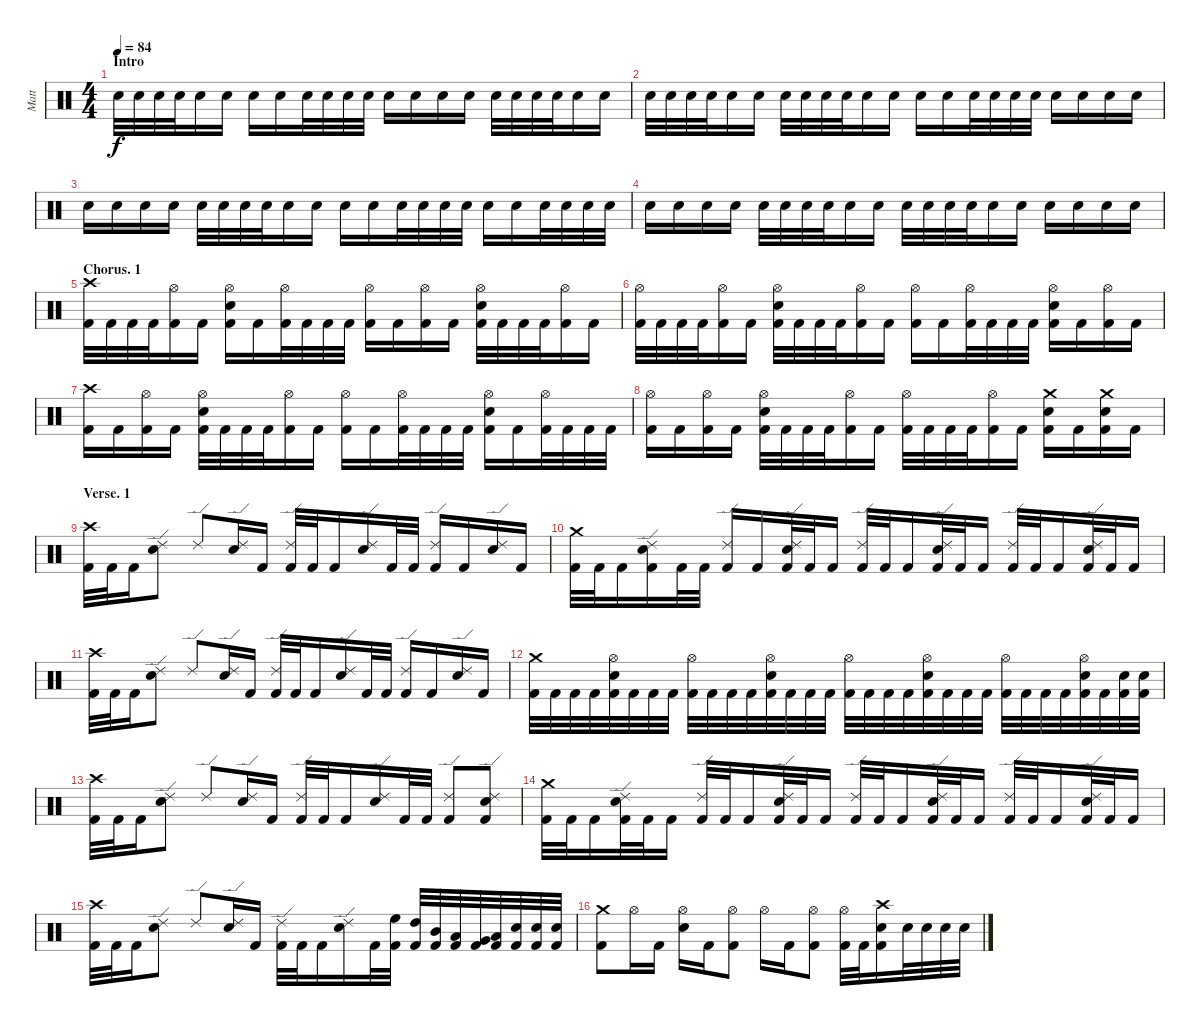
\track ("Matt" "Matt") {instrument percussion}
\staff {score}
\articulation defaults
\ts (4 4)
\section ("" "Intro")
\tempo 84
\clef neutral
\ks c "Electric Snare (hit)".32{dy f} "Electric Snare (hit)".32 "Electric Snare (hit)".32 "Electric Snare (hit)".32 "Electric Snare (hit)".16 "Electric Snare (hit)".16 "Electric Snare (hit)".16 "Electric Snare (hit)".16 "Electric Snare (hit)".32 "Electric Snare (hit)".32 "Electric Snare (hit)".32 "Electric Snare (hit)".32 "Electric Snare (hit)".16 "Electric Snare (hit)".16 "Electric Snare (hit)".16 "Electric Snare (hit)".16 "Electric Snare (hit)".32 "Electric Snare (hit)".32 "Electric Snare (hit)".32 "Electric Snare (hit)".32 "Electric Snare (hit)".16 "Electric Snare (hit)".16
|
"Electric Snare (hit)".32 "Electric Snare (hit)".32 "Electric Snare (hit)".32 "Electric Snare (hit)".32 "Electric Snare (hit)".16 "Electric Snare (hit)".16 "Electric Snare (hit)".32 "Electric Snare (hit)".32 "Electric Snare (hit)".32 "Electric Snare (hit)".32 "Electric Snare (hit)".16 "Electric Snare (hit)".16 "Electric Snare (hit)".16 "Electric Snare (hit)".16 "Electric Snare (hit)".32 "Electric Snare (hit)".32 "Electric Snare (hit)".32 "Electric Snare (hit)".32 "Electric Snare (hit)".16 "Electric Snare (hit)".16 "Electric Snare (hit)".16 "Electric Snare (hit)".16 |
"Electric Snare (hit)".16 "Electric Snare (hit)".16 "Electric Snare (hit)".16 "Electric Snare (hit)".16 "Electric Snare (hit)".32 "Electric Snare (hit)".32 "Electric Snare (hit)".32 "Electric Snare (hit)".32 "Electric Snare (hit)".16 "Electric Snare (hit)".16 "Electric Snare (hit)".16 "Electric Snare (hit)".16 "Electric Snare (hit)".32 "Electric Snare (hit)".32 "Electric Snare (hit)".32 "Electric Snare (hit)".32 "Electric Snare (hit)".16 "Electric Snare (hit)".16 "Electric Snare (hit)".32 "Electric Snare (hit)".32 "Electric Snare (hit)".32 "Electric Snare (hit)".32 |
"Electric Snare (hit)".16 "Electric Snare (hit)".16 "Electric Snare (hit)".16 "Electric Snare (hit)".16 "Electric Snare (hit)".32 "Electric Snare (hit)".32 "Electric Snare (hit)".32 "Electric Snare (hit)".32 "Electric Snare (hit)".16 "Electric Snare (hit)".16 "Electric Snare (hit)".32 "Electric Snare (hit)".32 "Electric Snare (hit)".32 "Electric Snare (hit)".32 "Electric Snare (hit)".16 "Electric Snare (hit)".16 "Electric Snare (hit)".16 "Electric Snare (hit)".16 "Electric Snare (hit)".16 "Electric Snare (hit)".16 |
\section ("" "Chorus. 1")
("Crash high (hit)" "Kick (hit) 2").32 "Kick (hit) 2".32 "Kick (hit) 2".32 "Kick (hit) 2".32 ("Hi-Hat (open)" "Kick (hit) 2").16 "Kick (hit) 2".16 ("Hi-Hat (open)" "Electric Snare (hit)" "Kick (hit) 2").16 "Kick (hit) 2".16 ("Hi-Hat (open)" "Kick (hit) 2").32 "Kick (hit) 2".32 "Kick (hit) 2".32 "Kick (hit) 2".32 ("Hi-Hat (open)" "Kick (hit) 2").16 "Kick (hit) 2".16 ("Hi-Hat (open)" "Kick (hit) 2").16 "Kick (hit) 2".16 ("Hi-Hat (open)" "Electric Snare (hit)" "Kick (hit) 2").32 "Kick (hit) 2".32 "Kick (hit) 2".32 "Kick (hit) 2".32 ("Hi-Hat (open)" "Kick (hit) 2").16 "Kick (hit) 2".16 |
("Hi-Hat (open)" "Kick (hit) 2").32 "Kick (hit) 2".32 "Kick (hit) 2".32 "Kick (hit) 2".32 ("Hi-Hat (open)" "Kick (hit) 2").16 "Kick (hit) 2".16 ("Hi-Hat (open)" "Electric Snare (hit)" "Kick (hit) 2").32 "Kick (hit) 2".32 "Kick (hit) 2".32 "Kick (hit) 2".32 ("Hi-Hat (open)" "Kick (hit) 2").16 "Kick (hit) 2".16 ("Hi-Hat (open)" "Kick (hit) 2").16 "Kick (hit) 2".16 ("Hi-Hat (open)" "Kick (hit) 2").32 "Kick (hit) 2".32 "Kick (hit) 2".32 "Kick (hit) 2".32 ("Hi-Hat (open)" "Electric Snare (hit)" "Kick (hit) 2").16 "Kick (hit) 2".16 ("Hi-Hat (open)" "Kick (hit) 2").16 "Kick (hit) 2".16 |
("Crash high (hit)" "Kick (hit) 2").16 "Kick (hit) 2".16 ("Hi-Hat (open)" "Kick (hit) 2").16 "Kick (hit) 2".16 ("Hi-Hat (open)" "Electric Snare (hit)" "Kick (hit) 2").32 "Kick (hit) 2".32 "Kick (hit) 2".32 "Kick (hit) 2".32 ("Hi-Hat (open)" "Kick (hit) 2").16 "Kick (hit) 2".16 ("Hi-Hat (open)" "Kick (hit) 2").16 "Kick (hit) 2".16 ("Hi-Hat (open)" "Kick (hit) 2").32 "Kick (hit) 2".32 "Kick (hit) 2".32 "Kick (hit) 2".32 ("Hi-Hat (open)" "Electric Snare (hit)" "Kick (hit) 2").16 "Kick (hit) 2".16 ("Hi-Hat (open)" "Kick (hit) 2").32 "Kick (hit) 2".32 "Kick (hit) 2".32 "Kick (hit) 2".32 |
("Hi-Hat (open)" "Kick (hit) 2").16 "Kick (hit) 2".16 ("Hi-Hat (open)" "Kick (hit) 2").16 "Kick (hit) 2".16 ("Hi-Hat (open)" "Electric Snare (hit)" "Kick (hit) 2").32 "Kick (hit) 2".32 "Kick (hit) 2".32 "Kick (hit) 2".32 ("Hi-Hat (open)" "Kick (hit) 2").16 "Kick (hit) 2".16 ("Hi-Hat (open)" "Kick (hit) 2").32 "Kick (hit) 2".32 "Kick (hit) 2".32 "Kick (hit) 2".32 ("Hi-Hat (open)" "Kick (hit) 2").16 "Kick (hit) 2".16 ("Crash medium (hit)" "Electric Snare (hit)" "Kick (hit) 2").16 "Kick (hit) 2".16 ("Crash medium (hit)" "Electric Snare (hit)" "Kick (hit) 2").16 "Kick (hit) 2".16 |
\section ("" "Verse. 1")
("Crash high (hit)" "Kick (hit) 2").32 "Kick (hit) 2".32 "Kick (hit) 2".16 ("Ride (edge) 2" "Electric Snare (hit)").8 "Ride (edge) 2".8 ("Ride (edge) 2" "Electric Snare (hit)").16 "Kick (hit) 2".16 ("Ride (edge) 2" "Kick (hit) 2").32 "Kick (hit) 2".32 "Kick (hit) 2".16 ("Ride (edge) 2" "Electric Snare (hit)").16 "Kick (hit) 2".32 "Kick (hit) 2".32 ("Ride (edge) 2" "Kick (hit) 2").16 "Kick (hit) 2".16 ("Ride (edge) 2" "Electric Snare (hit)").16 "Kick (hit) 2".16 |
("Crash medium (hit)" "Kick (hit) 2").32 "Kick (hit) 2".32 "Kick (hit) 2".16 ("Ride (edge) 2" "Electric Snare (hit)" "Kick (hit) 2").16 "Kick (hit) 2".32 "Kick (hit) 2".32 ("Ride (edge) 2" "Kick (hit) 2").16 "Kick (hit) 2".16 ("Ride (edge) 2" "Electric Snare (hit)" "Kick (hit) 2").32 "Kick (hit) 2".32 "Kick (hit) 2".16 ("Ride (edge) 2" "Kick (hit) 2").32 "Kick (hit) 2".32 "Kick (hit) 2".16 ("Ride (edge) 2" "Electric Snare (hit)" "Kick (hit) 2").32 "Kick (hit) 2".32 "Kick (hit) 2".16 ("Ride (edge) 2" "Kick (hit) 2").32 "Kick (hit) 2".32 "Kick (hit) 2".16 ("Ride (edge) 2" "Electric Snare (hit)" "Kick (hit) 2").32 "Kick (hit) 2".32 "Kick (hit) 2".16 |
("Crash high (hit)" "Kick (hit) 2").32 "Kick (hit) 2".32 "Kick (hit) 2".16 ("Ride (edge) 2" "Electric Snare (hit)").8 "Ride (edge) 2".8 ("Ride (edge) 2" "Electric Snare (hit)").16 "Kick (hit) 2".16 ("Ride (edge) 2" "Kick (hit) 2").32 "Kick (hit) 2".32 "Kick (hit) 2".16 ("Ride (edge) 2" "Electric Snare (hit)").16 "Kick (hit) 2".32 "Kick (hit) 2".32 ("Ride (edge) 2" "Kick (hit) 2").16 "Kick (hit) 2".16 ("Ride (edge) 2" "Electric Snare (hit)").16 "Kick (hit) 2".16 |
("Crash medium (hit)" "Kick (hit) 2").32 "Kick (hit) 2".32 "Kick (hit) 2".32 "Kick (hit) 2".32 ("Hi-Hat (open)" "Electric Snare (hit)" "Kick (hit) 2").32 "Kick (hit) 2".32 "Kick (hit) 2".32 "Kick (hit) 2".32 ("Hi-Hat (open)" "Kick (hit) 2").32 "Kick (hit) 2".32 "Kick (hit) 2".32 "Kick (hit) 2".32 ("Hi-Hat (open)" "Electric Snare (hit)" "Kick (hit) 2").32 "Kick (hit) 2".32 "Kick (hit) 2".32 "Kick (hit) 2".32 ("Hi-Hat (open)" "Kick (hit) 2").32 "Kick (hit) 2".32 "Kick (hit) 2".32 "Kick (hit) 2".32 ("Hi-Hat (open)" "Electric Snare (hit)" "Kick (hit) 2").32 "Kick (hit) 2".32 "Kick (hit) 2".32 "Kick (hit) 2".32 ("Hi-Hat (open)" "Kick (hit) 2").32 "Kick (hit) 2".32 "Kick (hit) 2".32 "Kick (hit) 2".32 ("Hi-Hat (open)" "Electric Snare (hit)" "Kick (hit) 2").32 "Kick (hit) 2".32 ("Electric Snare (hit)" "Kick (hit) 2").32 ("Electric Snare (hit)" "Kick (hit) 2").32 |
("Crash high (hit)" "Kick (hit) 2").32 "Kick (hit) 2".32 "Kick (hit) 2".16 ("Ride (edge) 2" "Electric Snare (hit)").8 "Ride (edge) 2".8 ("Ride (edge) 2" "Electric Snare (hit)").16 "Kick (hit) 2".16 ("Ride (edge) 2" "Kick (hit) 2").32 "Kick (hit) 2".32 "Kick (hit) 2".16 ("Ride (edge) 2" "Electric Snare (hit)").16 "Kick (hit) 2".32 "Kick (hit) 2".32 ("Ride (edge) 2" "Kick (hit) 2").8 ("Ride (edge) 2" "Electric Snare (hit)" "Kick (hit) 2").8 |
("Crash medium (hit)" "Kick (hit) 2").32 "Kick (hit) 2".32 "Kick (hit) 2".16 ("Ride (edge) 2" "Electric Snare (hit)" "Kick (hit) 2").32 "Kick (hit) 2".32 "Kick (hit) 2".16 ("Ride (edge) 2" "Kick (hit) 2").32 "Kick (hit) 2".32 "Kick (hit) 2".16 ("Ride (edge) 2" "Electric Snare (hit)" "Kick (hit) 2").32 "Kick (hit) 2".32 "Kick (hit) 2".16 ("Ride (edge) 2" "Kick (hit) 2").32 "Kick (hit) 2".32 "Kick (hit) 2".16 ("Ride (edge) 2" "Electric Snare (hit)" "Kick (hit) 2").32 "Kick (hit) 2".32 "Kick (hit) 2".16 ("Ride (edge) 2" "Kick (hit) 2").32 "Kick (hit) 2".32 "Kick (hit) 2".16 ("Ride (edge) 2" "Electric Snare (hit)" "Kick (hit) 2").32 "Kick (hit) 2".32 "Kick (hit) 2".16 |
("Crash high (hit)" "Kick (hit) 2").32 "Kick (hit) 2".32 "Kick (hit) 2".16 ("Ride (edge) 2" "Electric Snare (hit)").8 "Ride (edge) 2".8 ("Ride (edge) 2" "Electric Snare (hit)").16 "Kick (hit) 2".16 ("Ride (edge) 2" "Kick (hit) 2").32 "Kick (hit) 2".32 "Kick (hit) 2".16 ("Ride (edge) 2" "Electric Snare (hit)").16 "Kick (hit) 2".32 ("High Floor Tom (hit)" "Kick (hit) 2").32 ("High Tom (hit)" "Kick (hit) 2").32 ("Mid Tom (hit)" "Kick (hit) 2").32 ("Low Tom (hit)" "Kick (hit) 2").32 ("Very Low Tom (hit)" "Kick (hit) 2").32 ("Low Tom (hit)" "Kick (hit) 2").32 ("Electric Snare (hit)" "Kick (hit) 2").32 ("Electric Snare (hit)" "Kick (hit) 2").32 ("Electric Snare (hit)" "Kick (hit) 2").32 |
("Crash medium (hit)" "Kick (hit) 2").8 "Hi-Hat (open)".16 "Kick (hit) 2".16 ("Hi-Hat (open)" "Electric Snare (hit)").16 "Kick (hit) 2".16 ("Hi-Hat (open)" "Kick (hit) 2").8 "Hi-Hat (open)".16 "Kick (hit) 2".16 ("Hi-Hat (open)" "Kick (hit) 2").8 ("Hi-Hat (open)" "Kick (hit) 2").32 "Kick (hit) 2".32 ("Crash high (hit)" "Electric Snare (hit)" "Kick (hit) 2").16 "Electric Snare (hit)".32 "Electric Snare (hit)".32 "Electric Snare (hit)".32 "Electric Snare (hit)".32
